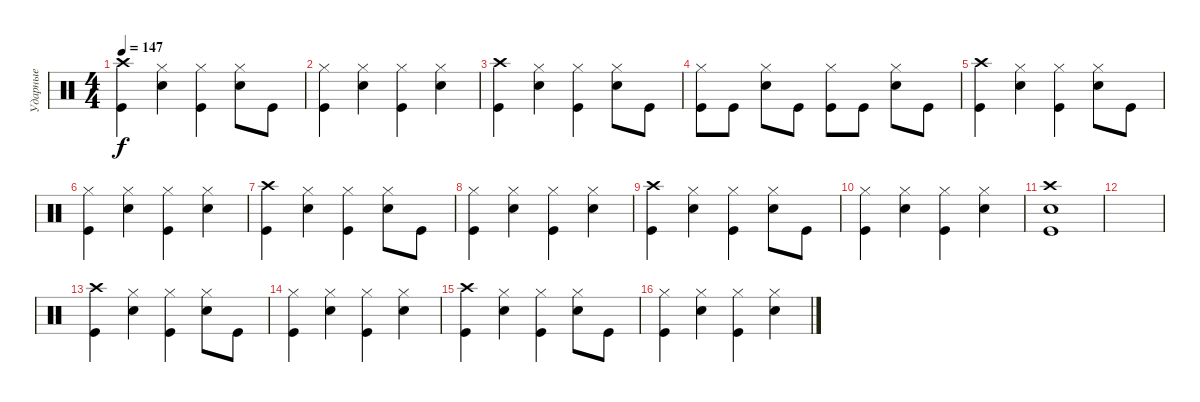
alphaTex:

\track ("Ударные" "Ударные") {instrument percussion}
\staff {score}
\articulation defaults
\ts (4 4)
\tempo 147
\clef neutral
\ks c
("Crash high (hit)" "Kick (hit)").4{dy f} ("Hi-Hat (closed)" "Electric Snare (hit)").4 ("Hi-Hat (closed)" "Kick (hit)").4 ("Hi-Hat (closed)" "Electric Snare (hit)").8 "Kick (hit)".8 |
("Hi-Hat (closed)" "Kick (hit)").4 ("Hi-Hat (closed)" "Electric Snare (hit)").4 ("Hi-Hat (closed)" "Kick (hit)").4 ("Hi-Hat (closed)" "Electric Snare (hit)").4 |
("Crash high (hit)" "Kick (hit)").4 ("Hi-Hat (closed)" "Electric Snare (hit)").4 ("Hi-Hat (closed)" "Kick (hit)").4 ("Hi-Hat (closed)" "Electric Snare (hit)").8 "Kick (hit)".8 |
("Hi-Hat (closed)" "Kick (hit)").8 "Kick (hit)".8 ("Hi-Hat (closed)" "Electric Snare (hit)").8 "Kick (hit)".8 ("Hi-Hat (closed)" "Kick (hit)").8 "Kick (hit)".8 ("Hi-Hat (closed)" "Electric Snare (hit)").8 "Kick (hit)".8 |
("Crash high (hit)" "Kick (hit)").4 ("Hi-Hat (closed)" "Electric Snare (hit)").4 ("Hi-Hat (closed)" "Kick (hit)").4 ("Hi-Hat (closed)" "Electric Snare (hit)").8 "Kick (hit)".8 |
("Hi-Hat (closed)" "Kick (hit)").4 ("Hi-Hat (closed)" "Electric Snare (hit)").4 ("Hi-Hat (closed)" "Kick (hit)").4 ("Hi-Hat (closed)" "Electric Snare (hit)").4 |
("Crash high (hit)" "Kick (hit)").4 ("Hi-Hat (closed)" "Electric Snare (hit)").4 ("Hi-Hat (closed)" "Kick (hit)").4 ("Hi-Hat (closed)" "Electric Snare (hit)").8 "Kick (hit)".8 |
("Hi-Hat (closed)" "Kick (hit)").4 ("Hi-Hat (closed)" "Electric Snare (hit)").4 ("Hi-Hat (closed)" "Kick (hit)").4 ("Hi-Hat (closed)" "Electric Snare (hit)").4 |
("Crash high (hit)" "Kick (hit)").4 ("Hi-Hat (closed)" "Electric Snare (hit)").4 ("Hi-Hat (closed)" "Kick (hit)").4 ("Hi-Hat (closed)" "Electric Snare (hit)").8 "Kick (hit)".8 |
("Hi-Hat (closed)" "Kick (hit)").4 ("Hi-Hat (closed)" "Electric Snare (hit)").4 ("Hi-Hat (closed)" "Kick (hit)").4 ("Hi-Hat (closed)" "Electric Snare (hit)").4 |
("Crash high (hit)" "Electric Snare (hit)" "Kick (hit)").1 |
|
("Crash high (hit)" "Kick (hit)").4 ("Hi-Hat (closed)" "Electric Snare (hit)").4 ("Hi-Hat (closed)" "Kick (hit)").4 ("Hi-Hat (closed)" "Electric Snare (hit)").8 "Kick (hit)".8 |
("Hi-Hat (closed)" "Kick (hit)").4 ("Hi-Hat (closed)" "Electric Snare (hit)").4 ("Hi-Hat (closed)" "Kick (hit)").4 ("Hi-Hat (closed)" "Electric Snare (hit)").4 |
("Crash high (hit)" "Kick (hit)").4 ("Hi-Hat (closed)" "Electric Snare (hit)").4 ("Hi-Hat (closed)" "Kick (hit)").4 ("Hi-Hat (closed)" "Electric Snare (hit)").8 "Kick (hit)".8 |
("Hi-Hat (closed)" "Kick (hit)").4 ("Hi-Hat (closed)" "Electric Snare (hit)").4 ("Hi-Hat (closed)" "Kick (hit)").4 ("Hi-Hat (closed)" "Electric Snare (hit)").4
